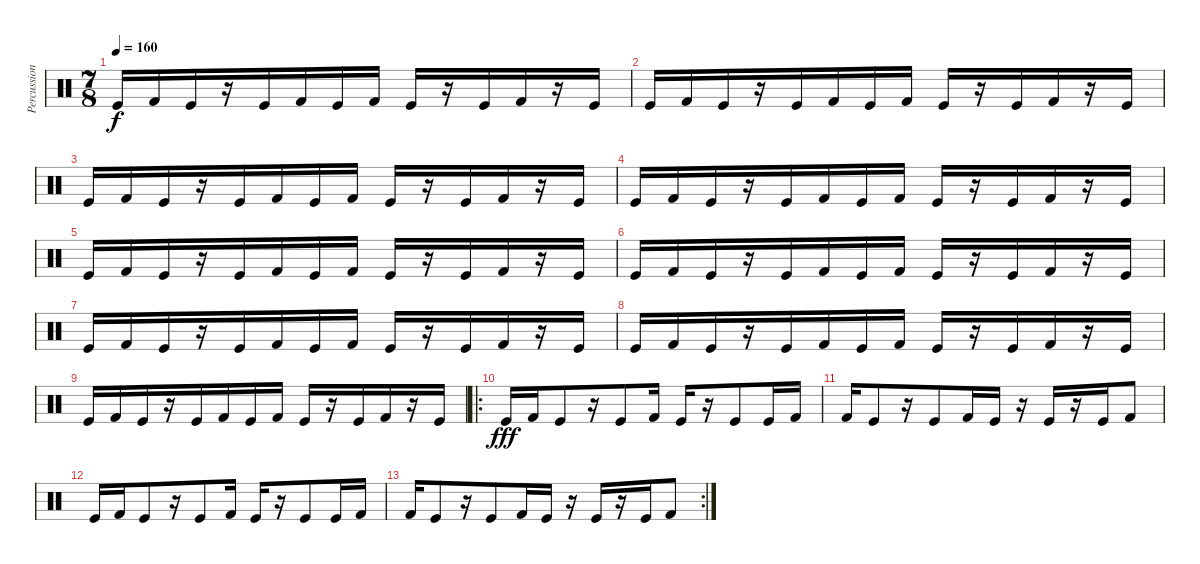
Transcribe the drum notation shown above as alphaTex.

\track ("Percussion" "Percussion") {instrument percussion}
\staff {score}
\articulation defaults
\ts (7 8)
\tempo 160
\clef neutral
\ks c "Kick (hit)".16{dy f} "Kick (hit) 2".16 "Kick (hit)".16
r.16 "Kick (hit)".16 "Kick (hit) 2".16 "Kick (hit)".16 "Kick (hit) 2".16 "Kick (hit)".16 r.16 "Kick (hit)".16 "Kick (hit) 2".16 r.16 "Kick (hit)".16 |
"Kick (hit)".16 "Kick (hit) 2".16 "Kick (hit)".16 r.16 "Kick (hit)".16 "Kick (hit) 2".16 "Kick (hit)".16 "Kick (hit) 2".16 "Kick (hit)".16 r.16 "Kick (hit)".16 "Kick (hit) 2".16 r.16 "Kick (hit)".16 |
"Kick (hit)".16 "Kick (hit) 2".16 "Kick (hit)".16 r.16 "Kick (hit)".16 "Kick (hit) 2".16 "Kick (hit)".16 "Kick (hit) 2".16 "Kick (hit)".16 r.16 "Kick (hit)".16 "Kick (hit) 2".16 r.16 "Kick (hit)".16 |
"Kick (hit)".16 "Kick (hit) 2".16 "Kick (hit)".16 r.16 "Kick (hit)".16 "Kick (hit) 2".16 "Kick (hit)".16 "Kick (hit) 2".16 "Kick (hit)".16 r.16 "Kick (hit)".16 "Kick (hit) 2".16 r.16 "Kick (hit)".16 |
"Kick (hit)".16 "Kick (hit) 2".16 "Kick (hit)".16 r.16 "Kick (hit)".16 "Kick (hit) 2".16 "Kick (hit)".16 "Kick (hit) 2".16 "Kick (hit)".16 r.16 "Kick (hit)".16 "Kick (hit) 2".16 r.16 "Kick (hit)".16 |
"Kick (hit)".16 "Kick (hit) 2".16 "Kick (hit)".16 r.16 "Kick (hit)".16 "Kick (hit) 2".16 "Kick (hit)".16 "Kick (hit) 2".16 "Kick (hit)".16 r.16 "Kick (hit)".16 "Kick (hit) 2".16 r.16 "Kick (hit)".16 |
"Kick (hit)".16 "Kick (hit) 2".16 "Kick (hit)".16 r.16 "Kick (hit)".16 "Kick (hit) 2".16 "Kick (hit)".16 "Kick (hit) 2".16 "Kick (hit)".16 r.16 "Kick (hit)".16 "Kick (hit) 2".16 r.16 "Kick (hit)".16 |
"Kick (hit)".16 "Kick (hit) 2".16 "Kick (hit)".16 r.16 "Kick (hit)".16 "Kick (hit) 2".16 "Kick (hit)".16 "Kick (hit) 2".16 "Kick (hit)".16 r.16 "Kick (hit)".16 "Kick (hit) 2".16 r.16 "Kick (hit)".16 |
"Kick (hit)".16 "Kick (hit) 2".16 "Kick (hit)".16 r.16 "Kick (hit)".16 "Kick (hit) 2".16 "Kick (hit)".16 "Kick (hit) 2".16 "Kick (hit)".16 r.16 "Kick (hit)".16 "Kick (hit) 2".16 r.16 "Kick (hit)".16 |
\ro "Kick (hit)".16{dy fff} "Kick (hit) 2".16 "Kick (hit)".8
r.16 "Kick (hit)".8 "Kick (hit) 2".16 "Kick (hit)".16 r.16 "Kick (hit)".8 "Kick (hit)".16 "Kick (hit) 2".16 |
"Kick (hit) 2".16 "Kick (hit)".8 r.16 "Kick (hit)".8 "Kick (hit) 2".16 "Kick (hit)".16 r.16 "Kick (hit)".16 r.16 "Kick (hit)".16 "Kick (hit) 2".8 |
"Kick (hit)".16 "Kick (hit) 2".16 "Kick (hit)".8 r.16 "Kick (hit)".8 "Kick (hit) 2".16 "Kick (hit)".16 r.16 "Kick (hit)".8 "Kick (hit)".16 "Kick (hit) 2".16 |
\rc 2 "Kick (hit) 2".16 "Kick (hit)".8
r.16 "Kick (hit)".8 "Kick (hit) 2".16 "Kick (hit)".16 r.16 "Kick (hit)".16 r.16 "Kick (hit)".16 "Kick (hit) 2".8
